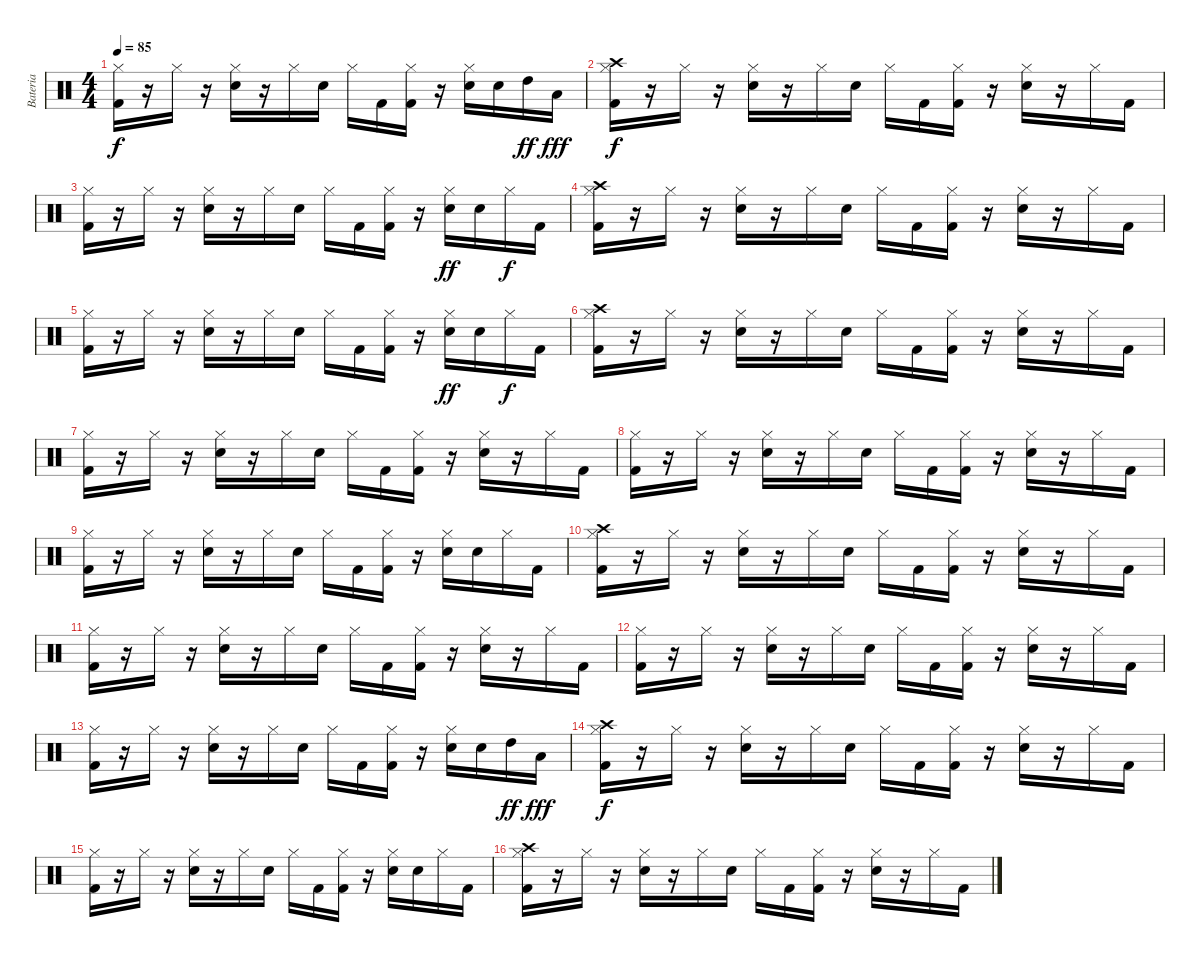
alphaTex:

\track ("Bateria" "Bateria") {instrument percussion}
\staff {score}
\articulation defaults
\ts (4 4)
\tempo 85
\clef neutral
\ks c
("Hi-Hat (closed)" "Kick (hit) 2").16{dy f} r.16 "Hi-Hat (closed)".16 r.16 ("Hi-Hat (closed)" "Snare (hit) 2").16 r.16 "Hi-Hat (closed)".16 "Snare (hit) 2".16 "Hi-Hat (closed)".16 "Kick (hit) 2".16 ("Hi-Hat (closed)" "Kick (hit) 2").16 r.16 ("Hi-Hat (closed)" "Snare (hit) 2").16 "Snare (hit) 2".16 "High Tom (hit)".16{dy ff} "Low Tom (hit)".16{dy fff} |
("Crash high (hit)" "Hi-Hat (closed)" "Kick (hit) 2").16{dy f} r.16 "Hi-Hat (closed)".16 r.16 ("Hi-Hat (closed)" "Snare (hit) 2").16 r.16 "Hi-Hat (closed)".16 "Snare (hit) 2".16 "Hi-Hat (closed)".16 "Kick (hit) 2".16 ("Hi-Hat (closed)" "Kick (hit) 2").16 r.16 ("Hi-Hat (closed)" "Snare (hit) 2").16 r.16 "Hi-Hat (closed)".16 "Kick (hit) 2".16 |
("Hi-Hat (closed)" "Kick (hit) 2").16 r.16 "Hi-Hat (closed)".16 r.16 ("Hi-Hat (closed)" "Snare (hit) 2").16 r.16 "Hi-Hat (closed)".16 "Snare (hit) 2".16 "Hi-Hat (closed)".16 "Kick (hit) 2".16 ("Hi-Hat (closed)" "Kick (hit) 2").16 r.16 ("Hi-Hat (closed)" "Snare (hit) 2").16{dy ff} "Snare (hit) 2".16 "Hi-Hat (closed)".16{dy f} "Kick (hit) 2".16 |
("Crash high (hit)" "Hi-Hat (closed)" "Kick (hit) 2").16 r.16 "Hi-Hat (closed)".16 r.16 ("Hi-Hat (closed)" "Snare (hit) 2").16 r.16 "Hi-Hat (closed)".16 "Snare (hit) 2".16 "Hi-Hat (closed)".16 "Kick (hit) 2".16 ("Hi-Hat (closed)" "Kick (hit) 2").16 r.16 ("Hi-Hat (closed)" "Snare (hit) 2").16 r.16 "Hi-Hat (closed)".16 "Kick (hit) 2".16 |
("Hi-Hat (closed)" "Kick (hit) 2").16 r.16 "Hi-Hat (closed)".16 r.16 ("Hi-Hat (closed)" "Snare (hit) 2").16 r.16 "Hi-Hat (closed)".16 "Snare (hit) 2".16 "Hi-Hat (closed)".16 "Kick (hit) 2".16 ("Hi-Hat (closed)" "Kick (hit) 2").16 r.16 ("Hi-Hat (closed)" "Snare (hit) 2").16{dy ff} "Snare (hit) 2".16 "Hi-Hat (closed)".16{dy f} "Kick (hit) 2".16 |
("Crash high (hit)" "Hi-Hat (closed)" "Kick (hit) 2").16 r.16 "Hi-Hat (closed)".16 r.16 ("Hi-Hat (closed)" "Snare (hit) 2").16 r.16 "Hi-Hat (closed)".16 "Snare (hit) 2".16 "Hi-Hat (closed)".16 "Kick (hit) 2".16 ("Hi-Hat (closed)" "Kick (hit) 2").16 r.16 ("Hi-Hat (closed)" "Snare (hit) 2").16 r.16 "Hi-Hat (closed)".16 "Kick (hit) 2".16 |
("Hi-Hat (closed)" "Kick (hit) 2").16 r.16 "Hi-Hat (closed)".16 r.16 ("Hi-Hat (closed)" "Snare (hit) 2").16 r.16 "Hi-Hat (closed)".16 "Snare (hit) 2".16 "Hi-Hat (closed)".16 "Kick (hit) 2".16 ("Hi-Hat (closed)" "Kick (hit) 2").16 r.16 ("Hi-Hat (closed)" "Snare (hit) 2").16 r.16 "Hi-Hat (closed)".16 "Kick (hit) 2".16 |
("Hi-Hat (closed)" "Kick (hit) 2").16 r.16 "Hi-Hat (closed)".16 r.16 ("Hi-Hat (closed)" "Snare (hit) 2").16 r.16 "Hi-Hat (closed)".16 "Snare (hit) 2".16 "Hi-Hat (closed)".16 "Kick (hit) 2".16 ("Hi-Hat (closed)" "Kick (hit) 2").16 r.16 ("Hi-Hat (closed)" "Snare (hit) 2").16 r.16 "Hi-Hat (closed)".16 "Kick (hit) 2".16 |
("Hi-Hat (closed)" "Kick (hit) 2").16 r.16 "Hi-Hat (closed)".16 r.16 ("Hi-Hat (closed)" "Snare (hit) 2").16 r.16 "Hi-Hat (closed)".16 "Snare (hit) 2".16 "Hi-Hat (closed)".16 "Kick (hit) 2".16 ("Hi-Hat (closed)" "Kick (hit) 2").16 r.16 ("Hi-Hat (closed)" "Snare (hit) 2").16 "Snare (hit) 2".16 "Hi-Hat (closed)".16 "Kick (hit) 2".16 |
("Crash high (hit)" "Hi-Hat (closed)" "Kick (hit) 2").16 r.16 "Hi-Hat (closed)".16 r.16 ("Hi-Hat (closed)" "Snare (hit) 2").16 r.16 "Hi-Hat (closed)".16 "Snare (hit) 2".16 "Hi-Hat (closed)".16 "Kick (hit) 2".16 ("Hi-Hat (closed)" "Kick (hit) 2").16 r.16 ("Hi-Hat (closed)" "Snare (hit) 2").16 r.16 "Hi-Hat (closed)".16 "Kick (hit) 2".16 |
("Hi-Hat (closed)" "Kick (hit) 2").16 r.16 "Hi-Hat (closed)".16 r.16 ("Hi-Hat (closed)" "Snare (hit) 2").16 r.16 "Hi-Hat (closed)".16 "Snare (hit) 2".16 "Hi-Hat (closed)".16 "Kick (hit) 2".16 ("Hi-Hat (closed)" "Kick (hit) 2").16 r.16 ("Hi-Hat (closed)" "Snare (hit) 2").16 r.16 "Hi-Hat (closed)".16 "Kick (hit) 2".16 |
("Hi-Hat (closed)" "Kick (hit) 2").16 r.16 "Hi-Hat (closed)".16 r.16 ("Hi-Hat (closed)" "Snare (hit) 2").16 r.16 "Hi-Hat (closed)".16 "Snare (hit) 2".16 "Hi-Hat (closed)".16 "Kick (hit) 2".16 ("Hi-Hat (closed)" "Kick (hit) 2").16 r.16 ("Hi-Hat (closed)" "Snare (hit) 2").16 r.16 "Hi-Hat (closed)".16 "Kick (hit) 2".16 |
("Hi-Hat (closed)" "Kick (hit) 2").16 r.16 "Hi-Hat (closed)".16 r.16 ("Hi-Hat (closed)" "Snare (hit) 2").16 r.16 "Hi-Hat (closed)".16 "Snare (hit) 2".16 "Hi-Hat (closed)".16 "Kick (hit) 2".16 ("Hi-Hat (closed)" "Kick (hit) 2").16 r.16 ("Hi-Hat (closed)" "Snare (hit) 2").16 "Snare (hit) 2".16 "High Tom (hit)".16{dy ff} "Low Tom (hit)".16{dy fff} |
("Crash high (hit)" "Hi-Hat (closed)" "Kick (hit) 2").16{dy f} r.16 "Hi-Hat (closed)".16 r.16 ("Hi-Hat (closed)" "Snare (hit) 2").16 r.16 "Hi-Hat (closed)".16 "Snare (hit) 2".16 "Hi-Hat (closed)".16 "Kick (hit) 2".16 ("Hi-Hat (closed)" "Kick (hit) 2").16 r.16 ("Hi-Hat (closed)" "Snare (hit) 2").16 r.16 "Hi-Hat (closed)".16 "Kick (hit) 2".16 |
("Hi-Hat (closed)" "Kick (hit) 2").16 r.16 "Hi-Hat (closed)".16 r.16 ("Hi-Hat (closed)" "Snare (hit) 2").16 r.16 "Hi-Hat (closed)".16 "Snare (hit) 2".16 "Hi-Hat (closed)".16 "Kick (hit) 2".16 ("Hi-Hat (closed)" "Kick (hit) 2").16 r.16 ("Hi-Hat (closed)" "Snare (hit) 2").16 "Snare (hit) 2".16 "Hi-Hat (closed)".16 "Kick (hit) 2".16 |
("Crash high (hit)" "Hi-Hat (closed)" "Kick (hit) 2").16 r.16 "Hi-Hat (closed)".16 r.16 ("Hi-Hat (closed)" "Snare (hit) 2").16 r.16 "Hi-Hat (closed)".16 "Snare (hit) 2".16 "Hi-Hat (closed)".16 "Kick (hit) 2".16 ("Hi-Hat (closed)" "Kick (hit) 2").16 r.16 ("Hi-Hat (closed)" "Snare (hit) 2").16 r.16 "Hi-Hat (closed)".16 "Kick (hit) 2".16
